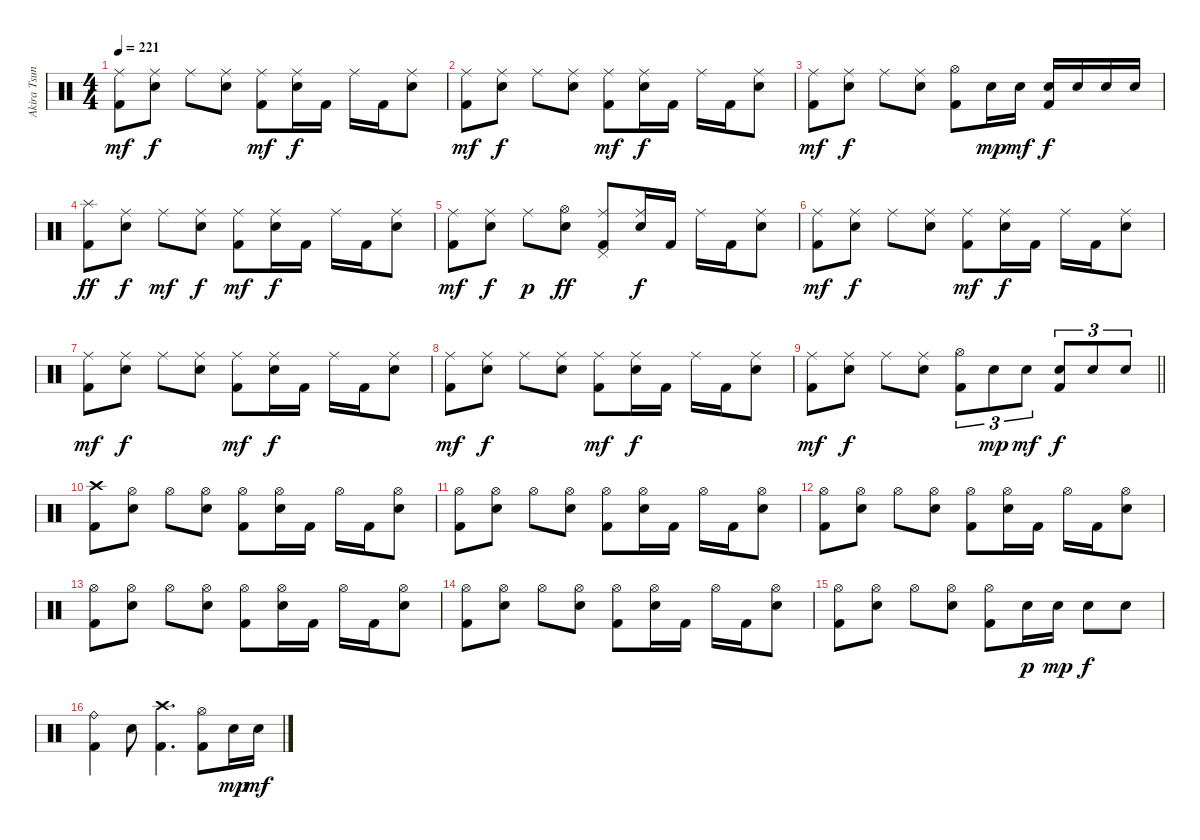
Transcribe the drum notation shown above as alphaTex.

\track ("Akira Tsuneoka" "Akira Tsun") {instrument percussion}
\staff {score}
\articulation defaults
\ts (4 4)
\tempo 221
\clef neutral
\ks c
("Ride (middle)" "Kick (hit) 2").8{dy mf} ("Ride (middle)" "Electric Snare (hit)").8{dy f} "Ride (middle)".8 ("Ride (middle)" "Electric Snare (hit)").8 ("Ride (middle)" "Kick (hit) 2").8{dy mf} ("Ride (middle)" "Electric Snare (hit)").16{dy f} "Kick (hit) 2".16 "Ride (middle)".16 "Kick (hit) 2".16 ("Ride (middle)" "Electric Snare (hit)").8 |
("Ride (middle)" "Kick (hit) 2").8{dy mf} ("Ride (middle)" "Electric Snare (hit)").8{dy f} "Ride (middle)".8 ("Ride (middle)" "Electric Snare (hit)").8 ("Ride (middle)" "Kick (hit) 2").8{dy mf} ("Ride (middle)" "Electric Snare (hit)").16{dy f} "Kick (hit) 2".16 "Ride (middle)".16 "Kick (hit) 2".16 ("Ride (middle)" "Electric Snare (hit)").8 |
("Ride (middle)" "Kick (hit) 2").8{dy mf} ("Ride (middle)" "Electric Snare (hit)").8{dy f} "Ride (middle)".8 ("Ride (middle)" "Electric Snare (hit)").8 ("Hi-Hat (open)" "Kick (hit) 2").8 "Electric Snare (hit)".16{dy mp} "Electric Snare (hit)".16{dy mf} ("Electric Snare (hit)" "Kick (hit) 2").16{dy f} "Electric Snare (hit)".16 "Electric Snare (hit)".16 "Electric Snare (hit)".16 |
("Splash (hit)" "Kick (hit) 2").8{dy ff} ("Ride (middle)" "Electric Snare (hit)").8{dy f} "Ride (middle)".8{dy mf} ("Ride (middle)" "Electric Snare (hit)").8{dy f} ("Ride (middle)" "Kick (hit) 2").8{dy mf} ("Ride (middle)" "Electric Snare (hit)").16{dy f} "Kick (hit) 2".16 "Ride (middle)".16 "Kick (hit) 2".16 ("Ride (middle)" "Electric Snare (hit)").8 |
("Ride (middle)" "Kick (hit) 2").8{dy mf} ("Ride (middle)" "Electric Snare (hit)").8{dy f} "Ride (middle)".8{dy p} ("Hi-Hat (open)" "Electric Snare (hit)").8{dy ff} ("Ride (middle)" "Pedal Hi-Hat (hit)" "Kick (hit) 2").8 ("Ride (middle)" "Electric Snare (hit)").16{dy f} "Kick (hit) 2".16 "Ride (middle)".16 "Kick (hit) 2".16 ("Ride (middle)" "Electric Snare (hit)").8 |
("Ride (middle)" "Kick (hit) 2").8{dy mf} ("Ride (middle)" "Electric Snare (hit)").8{dy f} "Ride (middle)".8 ("Ride (middle)" "Electric Snare (hit)").8 ("Ride (middle)" "Kick (hit) 2").8{dy mf} ("Ride (middle)" "Electric Snare (hit)").16{dy f} "Kick (hit) 2".16 "Ride (middle)".16 "Kick (hit) 2".16 ("Ride (middle)" "Electric Snare (hit)").8 |
("Ride (middle)" "Kick (hit) 2").8{dy mf} ("Ride (middle)" "Electric Snare (hit)").8{dy f} "Ride (middle)".8 ("Ride (middle)" "Electric Snare (hit)").8 ("Ride (middle)" "Kick (hit) 2").8{dy mf} ("Ride (middle)" "Electric Snare (hit)").16{dy f} "Kick (hit) 2".16 "Ride (middle)".16 "Kick (hit) 2".16 ("Ride (middle)" "Electric Snare (hit)").8 |
("Ride (middle)" "Kick (hit) 2").8{dy mf} ("Ride (middle)" "Electric Snare (hit)").8{dy f} "Ride (middle)".8 ("Ride (middle)" "Electric Snare (hit)").8 ("Ride (middle)" "Kick (hit) 2").8{dy mf} ("Ride (middle)" "Electric Snare (hit)").16{dy f} "Kick (hit) 2".16 "Ride (middle)".16 "Kick (hit) 2".16 ("Ride (middle)" "Electric Snare (hit)").8 |
\barLineRight lightlight
("Ride (middle)" "Kick (hit) 2").8{dy mf} ("Ride (middle)" "Electric Snare (hit)").8{dy f} "Ride (middle)".8 ("Ride (middle)" "Electric Snare (hit)").8 ("Hi-Hat (open)" "Kick (hit) 2").8{tu (3 2)} "Electric Snare (hit)".8{tu (3 2) dy mp} "Electric Snare (hit)".8{tu (3 2) dy mf} ("Electric Snare (hit)" "Kick (hit) 2").8{tu (3 2) dy f} "Electric Snare (hit)".8{tu (3 2)} "Electric Snare (hit)".8{tu (3 2)} |
\section ("" "")
("Crash high (hit)" "Kick (hit) 2").8 ("Hi-Hat (open)" "Electric Snare (hit)").8 "Hi-Hat (open)".8 ("Hi-Hat (open)" "Electric Snare (hit)").8 ("Hi-Hat (open)" "Kick (hit) 2").8 ("Hi-Hat (open)" "Electric Snare (hit)").16 "Kick (hit) 2".16 "Hi-Hat (open)".16 "Kick (hit) 2".16 ("Hi-Hat (open)" "Electric Snare (hit)").8 |
("Hi-Hat (open)" "Kick (hit) 2").8 ("Hi-Hat (open)" "Electric Snare (hit)").8 "Hi-Hat (open)".8 ("Hi-Hat (open)" "Electric Snare (hit)").8 ("Hi-Hat (open)" "Kick (hit) 2").8 ("Hi-Hat (open)" "Electric Snare (hit)").16 "Kick (hit) 2".16 "Hi-Hat (open)".16 "Kick (hit) 2".16 ("Hi-Hat (open)" "Electric Snare (hit)").8 |
("Hi-Hat (open)" "Kick (hit) 2").8 ("Hi-Hat (open)" "Electric Snare (hit)").8 "Hi-Hat (open)".8 ("Hi-Hat (open)" "Electric Snare (hit)").8 ("Hi-Hat (open)" "Kick (hit) 2").8 ("Hi-Hat (open)" "Electric Snare (hit)").16 "Kick (hit) 2".16 "Hi-Hat (open)".16 "Kick (hit) 2".16 ("Hi-Hat (open)" "Electric Snare (hit)").8 |
("Hi-Hat (open)" "Kick (hit) 2").8 ("Hi-Hat (open)" "Electric Snare (hit)").8 "Hi-Hat (open)".8 ("Hi-Hat (open)" "Electric Snare (hit)").8 ("Hi-Hat (open)" "Kick (hit) 2").8 ("Hi-Hat (open)" "Electric Snare (hit)").16 "Kick (hit) 2".16 "Hi-Hat (open)".16 "Kick (hit) 2".16 ("Hi-Hat (open)" "Electric Snare (hit)").8 |
("Hi-Hat (open)" "Kick (hit) 2").8 ("Hi-Hat (open)" "Electric Snare (hit)").8 "Hi-Hat (open)".8 ("Hi-Hat (open)" "Electric Snare (hit)").8 ("Hi-Hat (open)" "Kick (hit) 2").8 ("Hi-Hat (open)" "Electric Snare (hit)").16 "Kick (hit) 2".16 "Hi-Hat (open)".16 "Kick (hit) 2".16 ("Hi-Hat (open)" "Electric Snare (hit)").8 |
("Hi-Hat (open)" "Kick (hit) 2").8 ("Hi-Hat (open)" "Electric Snare (hit)").8 "Hi-Hat (open)".8 ("Hi-Hat (open)" "Electric Snare (hit)").8 ("Hi-Hat (open)" "Kick (hit) 2").8 "Electric Snare (hit)".16{dy p} "Electric Snare (hit)".16{dy mp} "Electric Snare (hit)".8{dy f} "Electric Snare (hit)".8 |
("Ride (bell)" "Kick (hit) 2").4 "Electric Snare (hit)".8 ("Crash high (hit)" "Kick (hit) 2").4{d} ("Hi-Hat (open)" "Kick (hit) 2").8 "Electric Snare (hit)".16{dy mp} "Electric Snare (hit)".16{dy mf}
